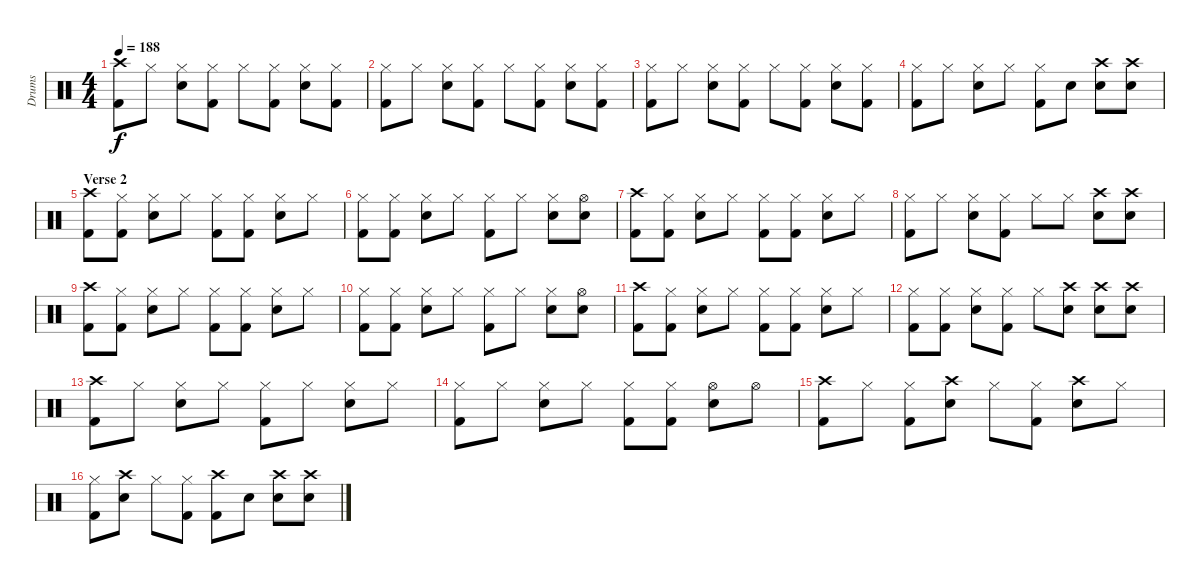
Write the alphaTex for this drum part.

\track ("Drums" "Drums") {instrument percussion}
\staff {score}
\articulation defaults
\ts (4 4)
\tempo 188
\clef neutral
\ks c
("Crash high (hit)" "Kick (hit) 2").8{dy f} "Hi-Hat (closed)".8 ("Hi-Hat (closed)" "Snare (hit) 2").8 ("Hi-Hat (closed)" "Kick (hit) 2").8 "Hi-Hat (closed)".8 ("Hi-Hat (closed)" "Kick (hit) 2").8 ("Hi-Hat (closed)" "Snare (hit) 2").8 ("Hi-Hat (closed)" "Kick (hit) 2").8 |
("Hi-Hat (closed)" "Kick (hit) 2").8 "Hi-Hat (closed)".8 ("Hi-Hat (closed)" "Snare (hit) 2").8 ("Hi-Hat (closed)" "Kick (hit) 2").8 "Hi-Hat (closed)".8 ("Hi-Hat (closed)" "Kick (hit) 2").8 ("Hi-Hat (closed)" "Snare (hit) 2").8 ("Hi-Hat (closed)" "Kick (hit) 2").8 |
("Hi-Hat (closed)" "Kick (hit) 2").8 "Hi-Hat (closed)".8 ("Hi-Hat (closed)" "Snare (hit) 2").8 ("Hi-Hat (closed)" "Kick (hit) 2").8 "Hi-Hat (closed)".8 ("Hi-Hat (closed)" "Kick (hit) 2").8 ("Hi-Hat (closed)" "Snare (hit) 2").8 ("Hi-Hat (closed)" "Kick (hit) 2").8 |
("Hi-Hat (closed)" "Kick (hit) 2").8 "Hi-Hat (closed)".8 ("Hi-Hat (closed)" "Snare (hit) 2").8 "Hi-Hat (closed)".8 ("Hi-Hat (closed)" "Kick (hit) 2").8 "Snare (hit) 2".8 ("Crash high (hit)" "Snare (hit) 2").8 ("Crash high (hit)" "Snare (hit) 2").8 |
\section ("" "Verse 2")
("Crash high (hit)" "Kick (hit) 2").8 ("Hi-Hat (closed)" "Kick (hit) 2").8 ("Hi-Hat (closed)" "Snare (hit) 2").8 "Hi-Hat (closed)".8 ("Hi-Hat (closed)" "Kick (hit) 2").8 ("Hi-Hat (closed)" "Kick (hit) 2").8 ("Hi-Hat (closed)" "Snare (hit) 2").8 "Hi-Hat (closed)".8 |
("Hi-Hat (closed)" "Kick (hit) 2").8 ("Hi-Hat (closed)" "Kick (hit) 2").8 ("Hi-Hat (closed)" "Snare (hit) 2").8 "Hi-Hat (closed)".8 ("Hi-Hat (closed)" "Kick (hit) 2").8 "Hi-Hat (closed)".8 ("Hi-Hat (closed)" "Snare (hit) 2").8 ("Hi-Hat (open)" "Snare (hit) 2").8 |
("Crash high (hit)" "Kick (hit) 2").8 ("Hi-Hat (closed)" "Kick (hit) 2").8 ("Hi-Hat (closed)" "Snare (hit) 2").8 "Hi-Hat (closed)".8 ("Hi-Hat (closed)" "Kick (hit) 2").8 ("Hi-Hat (closed)" "Kick (hit) 2").8 ("Hi-Hat (closed)" "Snare (hit) 2").8 "Hi-Hat (closed)".8 |
("Hi-Hat (closed)" "Kick (hit) 2").8 "Hi-Hat (closed)".8 ("Hi-Hat (closed)" "Snare (hit) 2").8 ("Hi-Hat (closed)" "Kick (hit) 2").8 "Hi-Hat (closed)".8 "Hi-Hat (closed)".8 ("Crash high (hit)" "Snare (hit) 2").8 ("Crash high (hit)" "Snare (hit) 2").8 |
("Crash high (hit)" "Kick (hit) 2").8 ("Hi-Hat (closed)" "Kick (hit) 2").8 ("Hi-Hat (closed)" "Snare (hit) 2").8 "Hi-Hat (closed)".8 ("Hi-Hat (closed)" "Kick (hit) 2").8 ("Hi-Hat (closed)" "Kick (hit) 2").8 ("Hi-Hat (closed)" "Snare (hit) 2").8 "Hi-Hat (closed)".8 |
("Hi-Hat (closed)" "Kick (hit) 2").8 ("Hi-Hat (closed)" "Kick (hit) 2").8 ("Hi-Hat (closed)" "Snare (hit) 2").8 "Hi-Hat (closed)".8 ("Hi-Hat (closed)" "Kick (hit) 2").8 "Hi-Hat (closed)".8 ("Hi-Hat (closed)" "Snare (hit) 2").8 ("Hi-Hat (open)" "Snare (hit) 2").8 |
("Crash high (hit)" "Kick (hit) 2").8 ("Hi-Hat (closed)" "Kick (hit) 2").8 ("Hi-Hat (closed)" "Snare (hit) 2").8 "Hi-Hat (closed)".8 ("Hi-Hat (closed)" "Kick (hit) 2").8 ("Hi-Hat (closed)" "Kick (hit) 2").8 ("Hi-Hat (closed)" "Snare (hit) 2").8 "Hi-Hat (closed)".8 |
("Hi-Hat (closed)" "Kick (hit) 2").8 ("Hi-Hat (closed)" "Kick (hit) 2").8 ("Hi-Hat (closed)" "Snare (hit) 2").8 ("Hi-Hat (closed)" "Kick (hit) 2").8 "Hi-Hat (closed)".8 ("Crash high (hit)" "Snare (hit) 2").8 ("Crash high (hit)" "Snare (hit) 2").8 ("Crash high (hit)" "Snare (hit) 2").8 |
("Crash high (hit)" "Kick (hit) 2").8 "Hi-Hat (closed)".8 ("Hi-Hat (closed)" "Snare (hit) 2").8 "Hi-Hat (closed)".8 ("Hi-Hat (closed)" "Kick (hit) 2").8 "Hi-Hat (closed)".8 ("Hi-Hat (closed)" "Snare (hit) 2").8 "Hi-Hat (closed)".8 |
("Hi-Hat (closed)" "Kick (hit) 2").8 "Hi-Hat (closed)".8 ("Hi-Hat (closed)" "Snare (hit) 2").8 "Hi-Hat (closed)".8 ("Hi-Hat (closed)" "Kick (hit) 2").8 ("Hi-Hat (closed)" "Kick (hit) 2").8 ("Hi-Hat (open)" "Snare (hit) 2").8 "Hi-Hat (open)".8 |
("Crash high (hit)" "Kick (hit) 2").8 "Hi-Hat (closed)".8 ("Hi-Hat (closed)" "Kick (hit) 2").8 ("Crash high (hit)" "Snare (hit) 2").8 "Hi-Hat (closed)".8 ("Hi-Hat (closed)" "Kick (hit) 2").8 ("Crash high (hit)" "Snare (hit) 2").8 "Hi-Hat (closed)".8 |
("Hi-Hat (closed)" "Kick (hit) 2").8 ("Crash high (hit)" "Snare (hit) 2").8 "Hi-Hat (closed)".8 ("Hi-Hat (closed)" "Kick (hit) 2").8 ("Crash high (hit)" "Kick (hit) 2").8 "Snare (hit) 2".8 ("Crash high (hit)" "Snare (hit) 2").8 ("Crash high (hit)" "Snare (hit) 2").8
